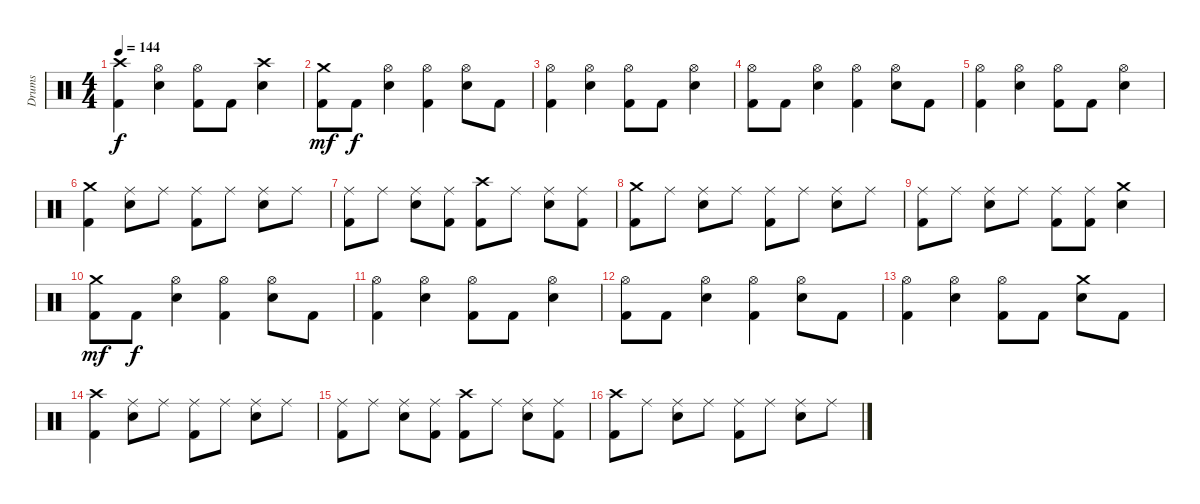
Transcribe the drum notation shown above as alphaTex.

\track ("Drums" "Drums") {instrument percussion}
\staff {score}
\articulation defaults
\ts (4 4)
\tempo 144
\clef neutral
\ks c
("Crash high (hit)" "Kick (hit) 2").4{dy f} ("Hi-Hat (open)" "Snare (hit) 2").4 ("Hi-Hat (open)" "Kick (hit) 2").8 "Kick (hit) 2".8 ("Crash high (hit)" "Snare (hit) 2").4 |
("Crash medium (hit)" "Kick (hit) 2").8{dy mf} "Kick (hit) 2".8{dy f} ("Hi-Hat (open)" "Snare (hit) 2").4 ("Hi-Hat (open)" "Kick (hit) 2").4 ("Hi-Hat (open)" "Snare (hit) 2").8 "Kick (hit) 2".8 |
("Hi-Hat (open)" "Kick (hit) 2").4 ("Hi-Hat (open)" "Snare (hit) 2").4 ("Hi-Hat (open)" "Kick (hit) 2").8 "Kick (hit) 2".8 ("Hi-Hat (open)" "Snare (hit) 2").4 |
("Hi-Hat (open)" "Kick (hit) 2").8 "Kick (hit) 2".8 ("Hi-Hat (open)" "Snare (hit) 2").4 ("Hi-Hat (open)" "Kick (hit) 2").4 ("Hi-Hat (open)" "Snare (hit) 2").8 "Kick (hit) 2".8 |
("Hi-Hat (open)" "Kick (hit) 2").4 ("Hi-Hat (open)" "Snare (hit) 2").4 ("Hi-Hat (open)" "Kick (hit) 2").8 "Kick (hit) 2".8 ("Hi-Hat (open)" "Snare (hit) 2").4 |
("Crash medium (hit)" "Kick (hit) 2").4 ("Ride (middle)" "Snare (hit) 2").8 "Ride (middle)".8 ("Ride (middle)" "Kick (hit) 2").8 "Ride (middle)".8 ("Ride (middle)" "Snare (hit) 2").8 "Ride (middle)".8 |
("Ride (middle)" "Kick (hit) 2").8 "Ride (middle)".8 ("Ride (middle)" "Snare (hit) 2").8 ("Ride (middle)" "Kick (hit) 2").8 ("Crash high (hit)" "Kick (hit) 2").8 "Ride (middle)".8 ("Ride (middle)" "Snare (hit) 2").8 ("Ride (middle)" "Kick (hit) 2").8 |
("Crash medium (hit)" "Kick (hit) 2").8 "Ride (middle)".8 ("Ride (middle)" "Snare (hit) 2").8 "Ride (middle)".8 ("Ride (middle)" "Kick (hit) 2").8 "Ride (middle)".8 ("Ride (middle)" "Snare (hit) 2").8 "Ride (middle)".8 |
("Ride (middle)" "Kick (hit) 2").8 "Ride (middle)".8 ("Ride (middle)" "Snare (hit) 2").8 "Ride (middle)".8 ("Ride (middle)" "Kick (hit) 2").8 ("Ride (middle)" "Kick (hit) 2").8 ("Crash medium (hit)" "Snare (hit) 2").4 |
("Crash medium (hit)" "Kick (hit) 2").8{dy mf} "Kick (hit) 2".8{dy f} ("Hi-Hat (open)" "Snare (hit) 2").4 ("Hi-Hat (open)" "Kick (hit) 2").4 ("Hi-Hat (open)" "Snare (hit) 2").8 "Kick (hit) 2".8 |
("Hi-Hat (open)" "Kick (hit) 2").4 ("Hi-Hat (open)" "Snare (hit) 2").4 ("Hi-Hat (open)" "Kick (hit) 2").8 "Kick (hit) 2".8 ("Hi-Hat (open)" "Snare (hit) 2").4 |
("Hi-Hat (open)" "Kick (hit) 2").8 "Kick (hit) 2".8 ("Hi-Hat (open)" "Snare (hit) 2").4 ("Hi-Hat (open)" "Kick (hit) 2").4 ("Hi-Hat (open)" "Snare (hit) 2").8 "Kick (hit) 2".8 |
("Hi-Hat (open)" "Kick (hit) 2").4 ("Hi-Hat (open)" "Snare (hit) 2").4 ("Hi-Hat (open)" "Kick (hit) 2").8 "Kick (hit) 2".8 ("Crash medium (hit)" "Snare (hit) 2").8 "Kick (hit) 2".8 |
("Crash high (hit)" "Kick (hit) 2").4 ("Ride (middle)" "Snare (hit) 2").8 "Ride (middle)".8 ("Ride (middle)" "Kick (hit) 2").8 "Ride (middle)".8 ("Ride (middle)" "Snare (hit) 2").8 "Ride (middle)".8 |
("Ride (middle)" "Kick (hit) 2").8 "Ride (middle)".8 ("Ride (middle)" "Snare (hit) 2").8 ("Ride (middle)" "Kick (hit) 2").8 ("Crash high (hit)" "Kick (hit) 2").8 "Ride (middle)".8 ("Ride (middle)" "Snare (hit) 2").8 ("Ride (middle)" "Kick (hit) 2").8 |
("Crash high (hit)" "Kick (hit) 2").8 "Ride (middle)".8 ("Ride (middle)" "Snare (hit) 2").8 "Ride (middle)".8 ("Ride (middle)" "Kick (hit) 2").8 "Ride (middle)".8 ("Ride (middle)" "Snare (hit) 2").8 "Ride (middle)".8
